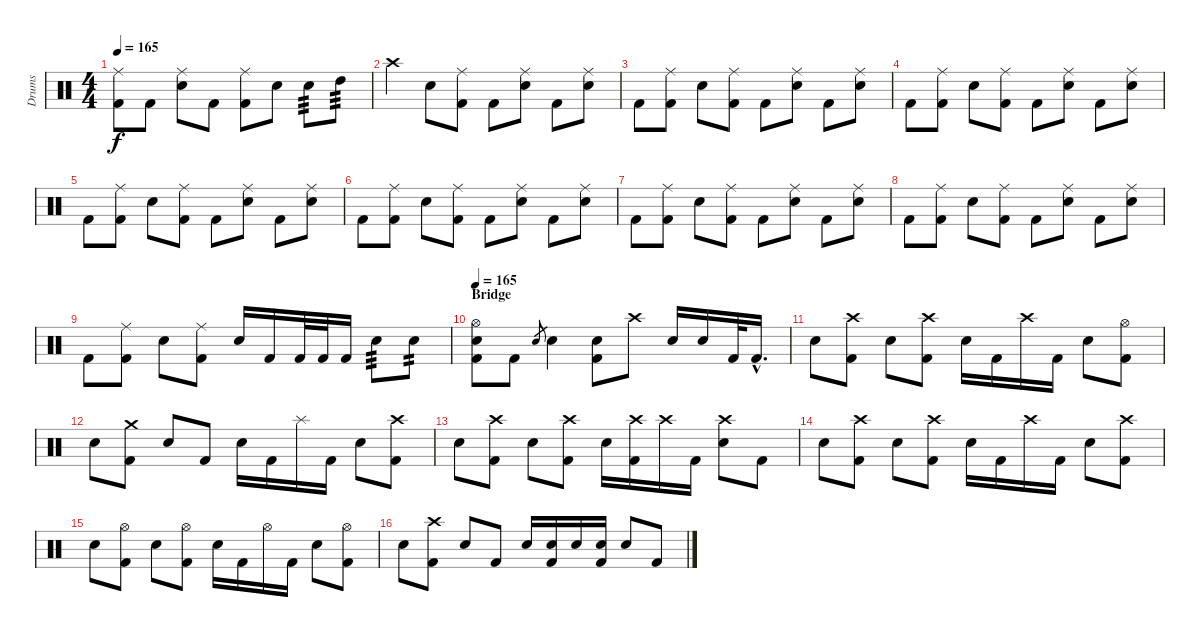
\track ("Drums" "Drums") {instrument percussion}
\staff {score}
\articulation defaults
\ts (4 4)
\tempo 165
\clef neutral
\ks c
("Ride (middle)" "Kick (hit) 2").8{dy f} "Kick (hit) 2".8 ("Ride (middle)" "Electric Snare (hit)").8 "Kick (hit) 2".8 ("Ride (middle)" "Kick (hit) 2").8 "Electric Snare (hit)".8 "Electric Snare (hit)".8{tp 3} "High Tom (hit)".8{tp 3} |
"Crash high (hit)".4 "Electric Snare (hit)".8 ("Ride (middle)" "Kick (hit) 2").8 "Kick (hit) 2".8 ("Ride (middle)" "Electric Snare (hit)").8 "Kick (hit) 2".8 ("Ride (middle)" "Electric Snare (hit)").8 |
"Kick (hit) 2".8 ("Ride (middle)" "Kick (hit) 2").8 "Electric Snare (hit)".8 ("Ride (middle)" "Kick (hit) 2").8 "Kick (hit) 2".8 ("Ride (middle)" "Electric Snare (hit)").8 "Kick (hit) 2".8 ("Ride (middle)" "Electric Snare (hit)").8 |
"Kick (hit) 2".8 ("Ride (middle)" "Kick (hit) 2").8 "Electric Snare (hit)".8 ("Ride (middle)" "Kick (hit) 2").8 "Kick (hit) 2".8 ("Ride (middle)" "Electric Snare (hit)").8 "Kick (hit) 2".8 ("Ride (middle)" "Electric Snare (hit)").8 |
"Kick (hit) 2".8 ("Ride (middle)" "Kick (hit) 2").8 "Electric Snare (hit)".8 ("Ride (middle)" "Kick (hit) 2").8 "Kick (hit) 2".8 ("Ride (middle)" "Electric Snare (hit)").8 "Kick (hit) 2".8 ("Ride (middle)" "Electric Snare (hit)").8 |
"Kick (hit) 2".8 ("Ride (middle)" "Kick (hit) 2").8 "Electric Snare (hit)".8 ("Ride (middle)" "Kick (hit) 2").8 "Kick (hit) 2".8 ("Ride (middle)" "Electric Snare (hit)").8 "Kick (hit) 2".8 ("Ride (middle)" "Electric Snare (hit)").8 |
"Kick (hit) 2".8 ("Ride (middle)" "Kick (hit) 2").8 "Electric Snare (hit)".8 ("Ride (middle)" "Kick (hit) 2").8 "Kick (hit) 2".8 ("Ride (middle)" "Electric Snare (hit)").8 "Kick (hit) 2".8 ("Ride (middle)" "Electric Snare (hit)").8 |
"Kick (hit) 2".8 ("Ride (middle)" "Kick (hit) 2").8 "Electric Snare (hit)".8 ("Ride (middle)" "Kick (hit) 2").8 "Kick (hit) 2".8 ("Ride (middle)" "Electric Snare (hit)").8 "Kick (hit) 2".8 ("Ride (middle)" "Electric Snare (hit)").8 |
"Kick (hit) 2".8 ("Ride (middle)" "Kick (hit) 2").8 "Electric Snare (hit)".8 ("Ride (middle)" "Kick (hit) 2").8 "Electric Snare (hit)".16 "Kick (hit) 2".16 "Kick (hit) 2".32 "Kick (hit) 2".32 "Kick (hit) 2".16 "Electric Snare (hit)".8{tp 3} "Electric Snare (hit)".8{tp 2} |
\section ("" "Bridge")
\tempo 165
("Hi-Hat (open)" "Electric Snare (hit)" "Kick (hit) 2").8 "Kick (hit) 2".8 "Electric Snare (hit)".8{gr} "Electric Snare (hit)".4 ("Electric Snare (hit)" "Kick (hit) 2").8 "Crash high (hit)".8 "Electric Snare (hit)".16 "Electric Snare (hit)".16 "Kick (hit) 2".32 "Kick (hit) 2"{hac}.16{d} |
"Electric Snare (hit)".8 ("Crash high (hit)" "Kick (hit) 2").8 "Electric Snare (hit)".8 ("Crash high (hit)" "Kick (hit) 2").8 "Electric Snare (hit)".16 "Kick (hit) 2".16 "Crash high (hit)".16 "Kick (hit) 2".16 "Electric Snare (hit)".8 ("Hi-Hat (open)" "Kick (hit) 2").8 |
"Electric Snare (hit)".8 ("Crash medium (hit)" "Kick (hit) 2").8 "Electric Snare (hit)".8 "Kick (hit) 2".8 "Electric Snare (hit)".16 "Kick (hit) 2".16 "Splash (hit)".16 "Kick (hit) 2".16 "Electric Snare (hit)".8 ("Crash high (hit)" "Kick (hit) 2").8 |
"Electric Snare (hit)".8 ("Crash high (hit)" "Kick (hit) 2").8 "Electric Snare (hit)".8 ("Crash high (hit)" "Kick (hit) 2").8 "Electric Snare (hit)".16 ("Crash high (hit)" "Kick (hit) 2").16 "Crash high (hit)".16 "Kick (hit) 2".16 ("Crash high (hit)" "Electric Snare (hit)").8 "Kick (hit) 2".8 |
"Electric Snare (hit)".8 ("Crash high (hit)" "Kick (hit) 2").8 "Electric Snare (hit)".8 ("Crash high (hit)" "Kick (hit) 2").8 "Electric Snare (hit)".16 "Kick (hit) 2".16 "Crash high (hit)".16 "Kick (hit) 2".16 "Electric Snare (hit)".8 ("Crash high (hit)" "Kick (hit) 2").8 |
"Electric Snare (hit)".8 ("Hi-Hat (open)" "Kick (hit) 2").8 "Electric Snare (hit)".8 ("Hi-Hat (open)" "Kick (hit) 2").8 "Electric Snare (hit)".16 "Kick (hit) 2".16 "Hi-Hat (open)".16 "Kick (hit) 2".16 "Electric Snare (hit)".8 ("Hi-Hat (open)" "Kick (hit) 2").8 |
"Electric Snare (hit)".8 ("Crash high (hit)" "Kick (hit) 2").8 "Electric Snare (hit)".8 "Kick (hit) 2".8 "Electric Snare (hit)".16 ("Electric Snare (hit)" "Kick (hit) 2").16 "Electric Snare (hit)".16 ("Electric Snare (hit)" "Kick (hit) 2").16 "Electric Snare (hit)".8 "Kick (hit) 2".8
